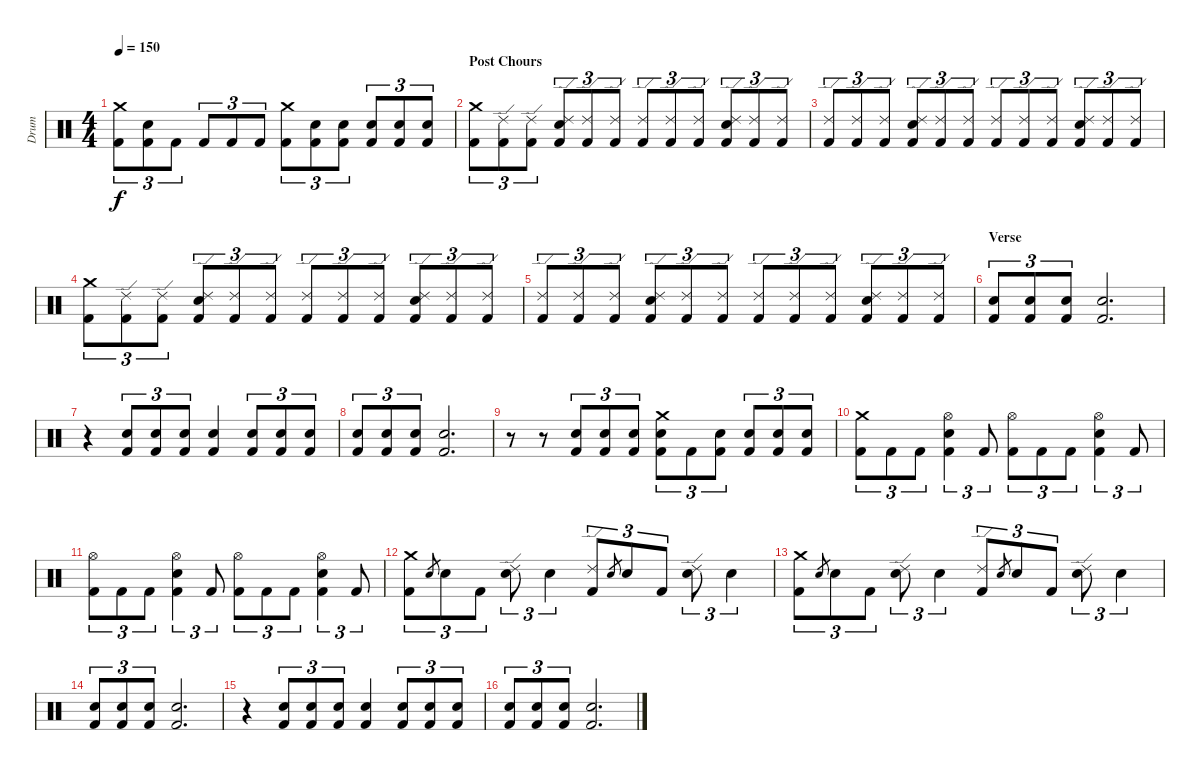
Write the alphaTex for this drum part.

\track ("Drum" "Drum") {instrument percussion}
\staff
\articulation defaults
\ts (4 4)
\tempo 150
\clef neutral
\ks c
("Crash medium (hit)" "Kick (hit) 2").8{tu (3 2) dy f} ("Electric Snare (hit)" "Kick (hit) 2").8{tu (3 2)} "Kick (hit) 2".8{tu (3 2)} "Kick (hit) 2".8{tu (3 2)} "Kick (hit) 2".8{tu (3 2)} "Kick (hit) 2".8{tu (3 2)} ("Crash medium (hit)" "Kick (hit) 2").8{tu (3 2)} ("Electric Snare (hit)" "Kick (hit) 2").8{tu (3 2)} ("Electric Snare (hit)" "Kick (hit) 2").8{tu (3 2)} ("Electric Snare (hit)" "Kick (hit) 2").8{tu (3 2)} ("Electric Snare (hit)" "Kick (hit) 2").8{tu (3 2)} ("Electric Snare (hit)" "Kick (hit) 2").8{tu (3 2)} |
\section ("" "Post Chours")
("Crash medium (hit)" "Kick (hit) 2").8{tu (3 2)} ("Ride (edge) 2" "Kick (hit) 2").8{tu (3 2)} ("Ride (edge) 2" "Kick (hit) 2").8{tu (3 2)} ("Ride (edge) 2" "Electric Snare (hit)" "Kick (hit) 2").8{tu (3 2)} ("Ride (edge) 2" "Kick (hit) 2").8{tu (3 2)} ("Ride (edge) 2" "Kick (hit) 2").8{tu (3 2)} ("Ride (edge) 2" "Kick (hit) 2").8{tu (3 2)} ("Ride (edge) 2" "Kick (hit) 2").8{tu (3 2)} ("Ride (edge) 2" "Kick (hit) 2").8{tu (3 2)} ("Ride (edge) 2" "Electric Snare (hit)" "Kick (hit) 2").8{tu (3 2)} ("Ride (edge) 2" "Kick (hit) 2").8{tu (3 2)} ("Ride (edge) 2" "Kick (hit) 2").8{tu (3 2)} |
("Ride (edge) 2" "Kick (hit) 2").8{tu (3 2)} ("Ride (edge) 2" "Kick (hit) 2").8{tu (3 2)} ("Ride (edge) 2" "Kick (hit) 2").8{tu (3 2)} ("Ride (edge) 2" "Electric Snare (hit)" "Kick (hit) 2").8{tu (3 2)} ("Ride (edge) 2" "Kick (hit) 2").8{tu (3 2)} ("Ride (edge) 2" "Kick (hit) 2").8{tu (3 2)} ("Ride (edge) 2" "Kick (hit) 2").8{tu (3 2)} ("Ride (edge) 2" "Kick (hit) 2").8{tu (3 2)} ("Ride (edge) 2" "Kick (hit) 2").8{tu (3 2)} ("Ride (edge) 2" "Electric Snare (hit)" "Kick (hit) 2").8{tu (3 2)} ("Ride (edge) 2" "Kick (hit) 2").8{tu (3 2)} ("Ride (edge) 2" "Kick (hit) 2").8{tu (3 2)} |
("Crash medium (hit)" "Kick (hit) 2").8{tu (3 2)} ("Ride (edge) 2" "Kick (hit) 2").8{tu (3 2)} ("Ride (edge) 2" "Kick (hit) 2").8{tu (3 2)} ("Ride (edge) 2" "Electric Snare (hit)" "Kick (hit) 2").8{tu (3 2)} ("Ride (edge) 2" "Kick (hit) 2").8{tu (3 2)} ("Ride (edge) 2" "Kick (hit) 2").8{tu (3 2)} ("Ride (edge) 2" "Kick (hit) 2").8{tu (3 2)} ("Ride (edge) 2" "Kick (hit) 2").8{tu (3 2)} ("Ride (edge) 2" "Kick (hit) 2").8{tu (3 2)} ("Ride (edge) 2" "Electric Snare (hit)" "Kick (hit) 2").8{tu (3 2)} ("Ride (edge) 2" "Kick (hit) 2").8{tu (3 2)} ("Ride (edge) 2" "Kick (hit) 2").8{tu (3 2)} |
("Ride (edge) 2" "Kick (hit) 2").8{tu (3 2)} ("Ride (edge) 2" "Kick (hit) 2").8{tu (3 2)} ("Ride (edge) 2" "Kick (hit) 2").8{tu (3 2)} ("Ride (edge) 2" "Electric Snare (hit)" "Kick (hit) 2").8{tu (3 2)} ("Ride (edge) 2" "Kick (hit) 2").8{tu (3 2)} ("Ride (edge) 2" "Kick (hit) 2").8{tu (3 2)} ("Ride (edge) 2" "Kick (hit) 2").8{tu (3 2)} ("Ride (edge) 2" "Kick (hit) 2").8{tu (3 2)} ("Ride (edge) 2" "Kick (hit) 2").8{tu (3 2)} ("Ride (edge) 2" "Electric Snare (hit)" "Kick (hit) 2").8{tu (3 2)} ("Ride (edge) 2" "Kick (hit) 2").8{tu (3 2)} ("Ride (edge) 2" "Kick (hit) 2").8{tu (3 2)} |
\section ("" "Verse")
("Electric Snare (hit)" "Kick (hit) 2").8{tu (3 2)} ("Electric Snare (hit)" "Kick (hit) 2").8{tu (3 2)} ("Electric Snare (hit)" "Kick (hit) 2").8{tu (3 2)} ("Electric Snare (hit)" "Kick (hit) 2").2{d} |
r.4 ("Electric Snare (hit)" "Kick (hit) 2").8{tu (3 2)} ("Electric Snare (hit)" "Kick (hit) 2").8{tu (3 2)} ("Electric Snare (hit)" "Kick (hit) 2").8{tu (3 2)} ("Electric Snare (hit)" "Kick (hit) 2").4 ("Electric Snare (hit)" "Kick (hit) 2").8{tu (3 2)} ("Electric Snare (hit)" "Kick (hit) 2").8{tu (3 2)} ("Electric Snare (hit)" "Kick (hit) 2").8{tu (3 2)} |
("Electric Snare (hit)" "Kick (hit) 2").8{tu (3 2)} ("Electric Snare (hit)" "Kick (hit) 2").8{tu (3 2)} ("Electric Snare (hit)" "Kick (hit) 2").8{tu (3 2)} ("Electric Snare (hit)" "Kick (hit) 2").2{d} |
r.8 r.8 ("Electric Snare (hit)" "Kick (hit) 2").8{tu (3 2)} ("Electric Snare (hit)" "Kick (hit) 2").8{tu (3 2)} ("Electric Snare (hit)" "Kick (hit) 2").8{tu (3 2)} ("Crash medium (hit)" "Electric Snare (hit)" "Kick (hit) 2").8{tu (3 2)} "Kick (hit) 2".8{tu (3 2)} ("Electric Snare (hit)" "Kick (hit) 2").8{tu (3 2)} ("Electric Snare (hit)" "Kick (hit) 2").8{tu (3 2)} ("Electric Snare (hit)" "Kick (hit) 2").8{tu (3 2)} ("Electric Snare (hit)" "Kick (hit) 2").8{tu (3 2)} |
("Crash medium (hit)" "Kick (hit) 2").8{tu (3 2)} "Kick (hit) 2".8{tu (3 2)} "Kick (hit) 2".8{tu (3 2)} ("Hi-Hat (open)" "Electric Snare (hit)" "Kick (hit) 2").4{tu (3 2)} "Kick (hit) 2".8{tu (3 2)} ("Hi-Hat (open)" "Kick (hit) 2").8{tu (3 2)} "Kick (hit) 2".8{tu (3 2)} "Kick (hit) 2".8{tu (3 2)} ("Hi-Hat (open)" "Electric Snare (hit)" "Kick (hit) 2").4{tu (3 2)} "Kick (hit) 2".8{tu (3 2)} |
("Hi-Hat (open)" "Kick (hit) 2").8{tu (3 2)} "Kick (hit) 2".8{tu (3 2)} "Kick (hit) 2".8{tu (3 2)} ("Hi-Hat (open)" "Electric Snare (hit)" "Kick (hit) 2").4{tu (3 2)} "Kick (hit) 2".8{tu (3 2)} ("Hi-Hat (open)" "Kick (hit) 2").8{tu (3 2)} "Kick (hit) 2".8{tu (3 2)} "Kick (hit) 2".8{tu (3 2)} ("Hi-Hat (open)" "Electric Snare (hit)" "Kick (hit) 2").4{tu (3 2)} "Kick (hit) 2".8{tu (3 2)} |
("Crash medium (hit)" "Kick (hit) 2").8{tu (3 2)} "Electric Snare (hit)".8{gr} "Electric Snare (hit)".8{tu (3 2)} "Kick (hit) 2".8{tu (3 2)} ("Ride (edge) 2" "Electric Snare (hit)").8{tu (3 2)} "Electric Snare (hit)".4{tu (3 2)} ("Ride (edge) 2" "Kick (hit) 2").8{tu (3 2)} "Electric Snare (hit)".8{gr} "Electric Snare (hit)".8{tu (3 2)} "Kick (hit) 2".8{tu (3 2)} ("Ride (edge) 2" "Electric Snare (hit)").8{tu (3 2)} "Electric Snare (hit)".4{tu (3 2)} |
("Crash medium (hit)" "Kick (hit) 2").8{tu (3 2)} "Electric Snare (hit)".8{gr} "Electric Snare (hit)".8{tu (3 2)} "Kick (hit) 2".8{tu (3 2)} ("Ride (edge) 2" "Electric Snare (hit)").8{tu (3 2)} "Electric Snare (hit)".4{tu (3 2)} ("Ride (edge) 2" "Kick (hit) 2").8{tu (3 2)} "Electric Snare (hit)".8{gr} "Electric Snare (hit)".8{tu (3 2)} "Kick (hit) 2".8{tu (3 2)} ("Ride (edge) 2" "Electric Snare (hit)").8{tu (3 2)} "Electric Snare (hit)".4{tu (3 2)} |
("Electric Snare (hit)" "Kick (hit) 2").8{tu (3 2)} ("Electric Snare (hit)" "Kick (hit) 2").8{tu (3 2)} ("Electric Snare (hit)" "Kick (hit) 2").8{tu (3 2)} ("Electric Snare (hit)" "Kick (hit) 2").2{d} |
r.4 ("Electric Snare (hit)" "Kick (hit) 2").8{tu (3 2)} ("Electric Snare (hit)" "Kick (hit) 2").8{tu (3 2)} ("Electric Snare (hit)" "Kick (hit) 2").8{tu (3 2)} ("Electric Snare (hit)" "Kick (hit) 2").4 ("Electric Snare (hit)" "Kick (hit) 2").8{tu (3 2)} ("Electric Snare (hit)" "Kick (hit) 2").8{tu (3 2)} ("Electric Snare (hit)" "Kick (hit) 2").8{tu (3 2)} |
("Electric Snare (hit)" "Kick (hit) 2").8{tu (3 2)} ("Electric Snare (hit)" "Kick (hit) 2").8{tu (3 2)} ("Electric Snare (hit)" "Kick (hit) 2").8{tu (3 2)} ("Electric Snare (hit)" "Kick (hit) 2").2{d}
